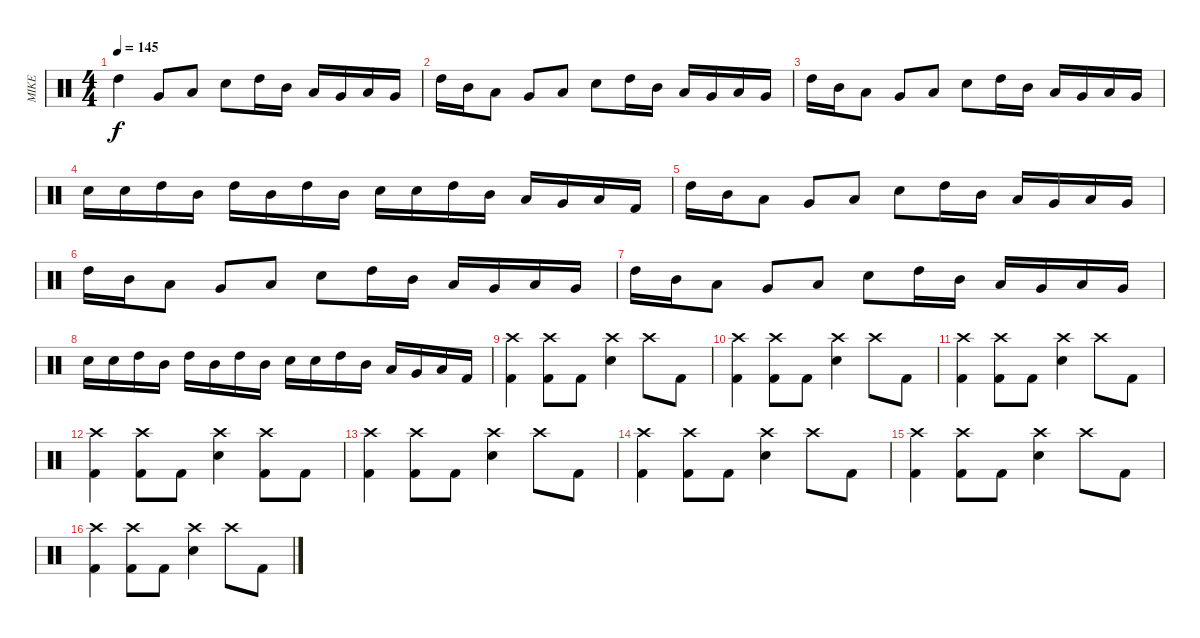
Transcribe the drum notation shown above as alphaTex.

\track ("MIKE" "MIKE") {instrument percussion}
\staff {score}
\articulation defaults
\ts (4 4)
\tempo 145
\clef neutral
\ks c "High Tom (hit)".4{dy f} "Very Low Tom (hit)".8 "Low Floor Tom (hit)".8 "Electric Snare (hit)".8 "High Tom (hit)".16 "Mid Tom (hit)".16 "Low Tom (hit)".16 "Very Low Tom (hit)".16 "Low Tom (hit)".16 "Very Low Tom (hit)".16
|
"High Tom (hit)".16 "Mid Tom (hit)".16 "Low Tom (hit)".8 "Very Low Tom (hit)".8 "Low Floor Tom (hit)".8 "Electric Snare (hit)".8 "High Tom (hit)".16 "Mid Tom (hit)".16 "Low Tom (hit)".16 "Very Low Tom (hit)".16 "Low Tom (hit)".16 "Very Low Tom (hit)".16 |
"High Tom (hit)".16 "Mid Tom (hit)".16 "Low Tom (hit)".8 "Very Low Tom (hit)".8 "Low Floor Tom (hit)".8 "Electric Snare (hit)".8 "High Tom (hit)".16 "Mid Tom (hit)".16 "Low Tom (hit)".16 "Very Low Tom (hit)".16 "Low Tom (hit)".16 "Very Low Tom (hit)".16 |
"Electric Snare (hit)".16 "Electric Snare (hit)".16 "High Tom (hit)".16 "Mid Tom (hit)".16 "High Tom (hit)".16 "Mid Tom (hit)".16 "High Tom (hit)".16 "Mid Tom (hit)".16 "Electric Snare (hit)".16 "Electric Snare (hit)".16 "High Tom (hit)".16 "Mid Tom (hit)".16 "Low Tom (hit)".16 "Very Low Tom (hit)".16 "Low Floor Tom (hit)".16 "Kick (hit) 2".16 |
"High Tom (hit)".16 "Mid Tom (hit)".16 "Low Tom (hit)".8 "Very Low Tom (hit)".8 "Low Floor Tom (hit)".8 "Electric Snare (hit)".8 "High Tom (hit)".16 "Mid Tom (hit)".16 "Low Tom (hit)".16 "Very Low Tom (hit)".16 "Low Tom (hit)".16 "Very Low Tom (hit)".16 |
"High Tom (hit)".16 "Mid Tom (hit)".16 "Low Tom (hit)".8 "Very Low Tom (hit)".8 "Low Floor Tom (hit)".8 "Electric Snare (hit)".8 "High Tom (hit)".16 "Mid Tom (hit)".16 "Low Tom (hit)".16 "Very Low Tom (hit)".16 "Low Tom (hit)".16 "Very Low Tom (hit)".16 |
"High Tom (hit)".16 "Mid Tom (hit)".16 "Low Tom (hit)".8 "Very Low Tom (hit)".8 "Low Floor Tom (hit)".8 "Electric Snare (hit)".8 "High Tom (hit)".16 "Mid Tom (hit)".16 "Low Tom (hit)".16 "Very Low Tom (hit)".16 "Low Tom (hit)".16 "Very Low Tom (hit)".16 |
"Electric Snare (hit)".16 "Electric Snare (hit)".16 "High Tom (hit)".16 "Mid Tom (hit)".16 "High Tom (hit)".16 "Mid Tom (hit)".16 "High Tom (hit)".16 "Mid Tom (hit)".16 "Electric Snare (hit)".16 "Electric Snare (hit)".16 "High Tom (hit)".16 "Mid Tom (hit)".16 "Low Tom (hit)".16 "Very Low Tom (hit)".16 "Low Floor Tom (hit)".16 "Kick (hit) 2".16 |
("Crash high (hit)" "Kick (hit) 2").4 ("Crash high (hit)" "Kick (hit) 2").8 "Kick (hit) 2".8 ("Crash high (hit)" "Electric Snare (hit)").4 "Crash high (hit)".8 "Kick (hit) 2".8 |
("Crash high (hit)" "Kick (hit) 2").4 ("Crash high (hit)" "Kick (hit) 2").8 "Kick (hit) 2".8 ("Crash high (hit)" "Electric Snare (hit)").4 "Crash high (hit)".8 "Kick (hit) 2".8 |
("Crash high (hit)" "Kick (hit) 2").4 ("Crash high (hit)" "Kick (hit) 2").8 "Kick (hit) 2".8 ("Crash high (hit)" "Electric Snare (hit)").4 "Crash high (hit)".8 "Kick (hit) 2".8 |
("Crash high (hit)" "Kick (hit) 2").4 ("Crash high (hit)" "Kick (hit) 2").8 "Kick (hit) 2".8 ("Crash high (hit)" "Electric Snare (hit)").4 ("Crash high (hit)" "Kick (hit) 2").8 "Kick (hit) 2".8 |
("Crash high (hit)" "Kick (hit) 2").4 ("Crash high (hit)" "Kick (hit) 2").8 "Kick (hit) 2".8 ("Crash high (hit)" "Electric Snare (hit)").4 "Crash high (hit)".8 "Kick (hit) 2".8 |
("Crash high (hit)" "Kick (hit) 2").4 ("Crash high (hit)" "Kick (hit) 2").8 "Kick (hit) 2".8 ("Crash high (hit)" "Electric Snare (hit)").4 "Crash high (hit)".8 "Kick (hit) 2".8 |
("Crash high (hit)" "Kick (hit) 2").4 ("Crash high (hit)" "Kick (hit) 2").8 "Kick (hit) 2".8 ("Crash high (hit)" "Electric Snare (hit)").4 "Crash high (hit)".8 "Kick (hit) 2".8 |
("Crash high (hit)" "Kick (hit) 2").4 ("Crash high (hit)" "Kick (hit) 2").8 "Kick (hit) 2".8 ("Crash high (hit)" "Electric Snare (hit)").4 "Crash high (hit)".8 "Kick (hit) 2".8
